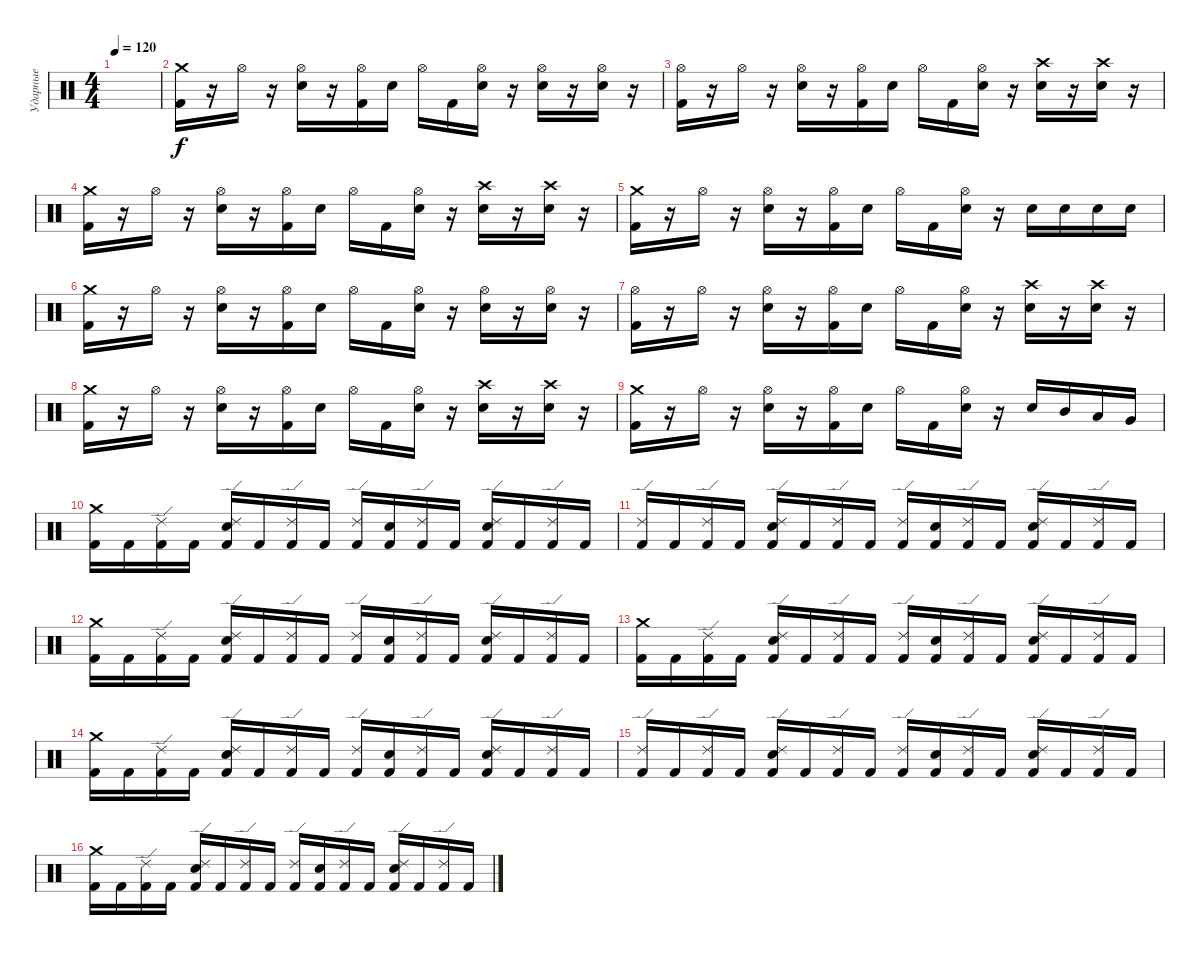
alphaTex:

\track ("Ударные" "Ударные") {instrument percussion}
\staff {score}
\articulation defaults
\ts (4 4)
\tempo 120
\clef neutral
\ks c
|
("Crash medium (hit)" "Kick (hit) 2").16 r.16 "Hi-Hat (open)".16 r.16 ("Hi-Hat (open)" "Electric Snare (hit)").16 r.16 ("Hi-Hat (open)" "Kick (hit) 2").16 "Electric Snare (hit)".16 "Hi-Hat (open)".16 "Kick (hit) 2".16 ("Hi-Hat (open)" "Electric Snare (hit)").16 r.16 ("Hi-Hat (open)" "Electric Snare (hit)").16 r.16 ("Hi-Hat (open)" "Electric Snare (hit)").16 r.16 |
("Hi-Hat (open)" "Kick (hit) 2").16 r.16 "Hi-Hat (open)".16 r.16 ("Hi-Hat (open)" "Electric Snare (hit)").16 r.16 ("Hi-Hat (open)" "Kick (hit) 2").16 "Electric Snare (hit)".16 "Hi-Hat (open)".16 "Kick (hit) 2".16 ("Hi-Hat (open)" "Electric Snare (hit)").16 r.16 ("Crash high (hit)" "Electric Snare (hit)").16 r.16 ("Crash high (hit)" "Electric Snare (hit)").16 r.16 |
("Crash medium (hit)" "Kick (hit) 2").16 r.16 "Hi-Hat (open)".16 r.16 ("Hi-Hat (open)" "Electric Snare (hit)").16 r.16 ("Hi-Hat (open)" "Kick (hit) 2").16 "Electric Snare (hit)".16 "Hi-Hat (open)".16 "Kick (hit) 2".16 ("Hi-Hat (open)" "Electric Snare (hit)").16 r.16 ("Crash high (hit)" "Electric Snare (hit)").16 r.16 ("Crash high (hit)" "Electric Snare (hit)").16 r.16 |
("Crash medium (hit)" "Kick (hit) 2").16 r.16 "Hi-Hat (open)".16 r.16 ("Hi-Hat (open)" "Electric Snare (hit)").16 r.16 ("Hi-Hat (open)" "Kick (hit) 2").16 "Electric Snare (hit)".16 "Hi-Hat (open)".16 "Kick (hit) 2".16 ("Hi-Hat (open)" "Electric Snare (hit)").16 r.16 "Electric Snare (hit)".16 "Electric Snare (hit)".16 "Electric Snare (hit)".16 "Electric Snare (hit)".16 |
("Crash medium (hit)" "Kick (hit) 2").16 r.16 "Hi-Hat (open)".16 r.16 ("Hi-Hat (open)" "Electric Snare (hit)").16 r.16 ("Hi-Hat (open)" "Kick (hit) 2").16 "Electric Snare (hit)".16 "Hi-Hat (open)".16 "Kick (hit) 2".16 ("Hi-Hat (open)" "Electric Snare (hit)").16 r.16 ("Hi-Hat (open)" "Electric Snare (hit)").16 r.16 ("Hi-Hat (open)" "Electric Snare (hit)").16 r.16 |
("Hi-Hat (open)" "Kick (hit) 2").16 r.16 "Hi-Hat (open)".16 r.16 ("Hi-Hat (open)" "Electric Snare (hit)").16 r.16 ("Hi-Hat (open)" "Kick (hit) 2").16 "Electric Snare (hit)".16 "Hi-Hat (open)".16 "Kick (hit) 2".16 ("Hi-Hat (open)" "Electric Snare (hit)").16 r.16 ("Crash high (hit)" "Electric Snare (hit)").16 r.16 ("Crash high (hit)" "Electric Snare (hit)").16 r.16 |
("Crash medium (hit)" "Kick (hit) 2").16 r.16 "Hi-Hat (open)".16 r.16 ("Hi-Hat (open)" "Electric Snare (hit)").16 r.16 ("Hi-Hat (open)" "Kick (hit) 2").16 "Electric Snare (hit)".16 "Hi-Hat (open)".16 "Kick (hit) 2".16 ("Hi-Hat (open)" "Electric Snare (hit)").16 r.16 ("Crash high (hit)" "Electric Snare (hit)").16 r.16 ("Crash high (hit)" "Electric Snare (hit)").16 r.16 |
("Crash medium (hit)" "Kick (hit) 2").16 r.16 "Hi-Hat (open)".16 r.16 ("Hi-Hat (open)" "Electric Snare (hit)").16 r.16 ("Hi-Hat (open)" "Kick (hit) 2").16 "Electric Snare (hit)".16 "Hi-Hat (open)".16 "Kick (hit) 2".16 ("Hi-Hat (open)" "Electric Snare (hit)").16 r.16 "Electric Snare (hit)".16 "Mid Tom (hit)".16 "Low Tom (hit)".16 "Very Low Tom (hit)".16 |
("Crash medium (hit)" "Kick (hit) 2").16 "Kick (hit) 2".16 ("Ride (edge) 2" "Kick (hit) 2").16 "Kick (hit) 2".16 ("Ride (edge) 2" "Electric Snare (hit)" "Kick (hit) 2").16 "Kick (hit) 2".16 ("Ride (edge) 2" "Kick (hit) 2").16 "Kick (hit) 2".16 ("Ride (edge) 2" "Kick (hit) 2").16 ("Electric Snare (hit)" "Kick (hit) 2").16 ("Ride (edge) 2" "Kick (hit) 2").16 "Kick (hit) 2".16 ("Ride (edge) 2" "Electric Snare (hit)" "Kick (hit) 2").16 "Kick (hit) 2".16 ("Ride (edge) 2" "Kick (hit) 2").16 "Kick (hit) 2".16 |
("Ride (edge) 2" "Kick (hit) 2").16 "Kick (hit) 2".16 ("Ride (edge) 2" "Kick (hit) 2").16 "Kick (hit) 2".16 ("Ride (edge) 2" "Electric Snare (hit)" "Kick (hit) 2").16 "Kick (hit) 2".16 ("Ride (edge) 2" "Kick (hit) 2").16 "Kick (hit) 2".16 ("Ride (edge) 2" "Kick (hit) 2").16 ("Electric Snare (hit)" "Kick (hit) 2").16 ("Ride (edge) 2" "Kick (hit) 2").16 "Kick (hit) 2".16 ("Ride (edge) 2" "Electric Snare (hit)" "Kick (hit) 2").16 "Kick (hit) 2".16 ("Ride (edge) 2" "Kick (hit) 2").16 "Kick (hit) 2".16 |
("Crash medium (hit)" "Kick (hit) 2").16 "Kick (hit) 2".16 ("Ride (edge) 2" "Kick (hit) 2").16 "Kick (hit) 2".16 ("Ride (edge) 2" "Electric Snare (hit)" "Kick (hit) 2").16 "Kick (hit) 2".16 ("Ride (edge) 2" "Kick (hit) 2").16 "Kick (hit) 2".16 ("Ride (edge) 2" "Kick (hit) 2").16 ("Electric Snare (hit)" "Kick (hit) 2").16 ("Ride (edge) 2" "Kick (hit) 2").16 "Kick (hit) 2".16 ("Ride (edge) 2" "Electric Snare (hit)" "Kick (hit) 2").16 "Kick (hit) 2".16 ("Ride (edge) 2" "Kick (hit) 2").16 "Kick (hit) 2".16 |
("Crash medium (hit)" "Kick (hit) 2").16 "Kick (hit) 2".16 ("Ride (edge) 2" "Kick (hit) 2").16 "Kick (hit) 2".16 ("Ride (edge) 2" "Electric Snare (hit)" "Kick (hit) 2").16 "Kick (hit) 2".16 ("Ride (edge) 2" "Kick (hit) 2").16 "Kick (hit) 2".16 ("Ride (edge) 2" "Kick (hit) 2").16 ("Electric Snare (hit)" "Kick (hit) 2").16 ("Ride (edge) 2" "Kick (hit) 2").16 "Kick (hit) 2".16 ("Ride (edge) 2" "Electric Snare (hit)" "Kick (hit) 2").16 "Kick (hit) 2".16 ("Ride (edge) 2" "Kick (hit) 2").16 "Kick (hit) 2".16 |
("Crash medium (hit)" "Kick (hit) 2").16 "Kick (hit) 2".16 ("Ride (edge) 2" "Kick (hit) 2").16 "Kick (hit) 2".16 ("Ride (edge) 2" "Electric Snare (hit)" "Kick (hit) 2").16 "Kick (hit) 2".16 ("Ride (edge) 2" "Kick (hit) 2").16 "Kick (hit) 2".16 ("Ride (edge) 2" "Kick (hit) 2").16 ("Electric Snare (hit)" "Kick (hit) 2").16 ("Ride (edge) 2" "Kick (hit) 2").16 "Kick (hit) 2".16 ("Ride (edge) 2" "Electric Snare (hit)" "Kick (hit) 2").16 "Kick (hit) 2".16 ("Ride (edge) 2" "Kick (hit) 2").16 "Kick (hit) 2".16 |
("Ride (edge) 2" "Kick (hit) 2").16 "Kick (hit) 2".16 ("Ride (edge) 2" "Kick (hit) 2").16 "Kick (hit) 2".16 ("Ride (edge) 2" "Electric Snare (hit)" "Kick (hit) 2").16 "Kick (hit) 2".16 ("Ride (edge) 2" "Kick (hit) 2").16 "Kick (hit) 2".16 ("Ride (edge) 2" "Kick (hit) 2").16 ("Electric Snare (hit)" "Kick (hit) 2").16 ("Ride (edge) 2" "Kick (hit) 2").16 "Kick (hit) 2".16 ("Ride (edge) 2" "Electric Snare (hit)" "Kick (hit) 2").16 "Kick (hit) 2".16 ("Ride (edge) 2" "Kick (hit) 2").16 "Kick (hit) 2".16 |
("Crash medium (hit)" "Kick (hit) 2").16 "Kick (hit) 2".16 ("Ride (edge) 2" "Kick (hit) 2").16 "Kick (hit) 2".16 ("Ride (edge) 2" "Electric Snare (hit)" "Kick (hit) 2").16 "Kick (hit) 2".16 ("Ride (edge) 2" "Kick (hit) 2").16 "Kick (hit) 2".16 ("Ride (edge) 2" "Kick (hit) 2").16 ("Electric Snare (hit)" "Kick (hit) 2").16 ("Ride (edge) 2" "Kick (hit) 2").16 "Kick (hit) 2".16 ("Ride (edge) 2" "Electric Snare (hit)" "Kick (hit) 2").16 "Kick (hit) 2".16 ("Ride (edge) 2" "Kick (hit) 2").16 "Kick (hit) 2".16
